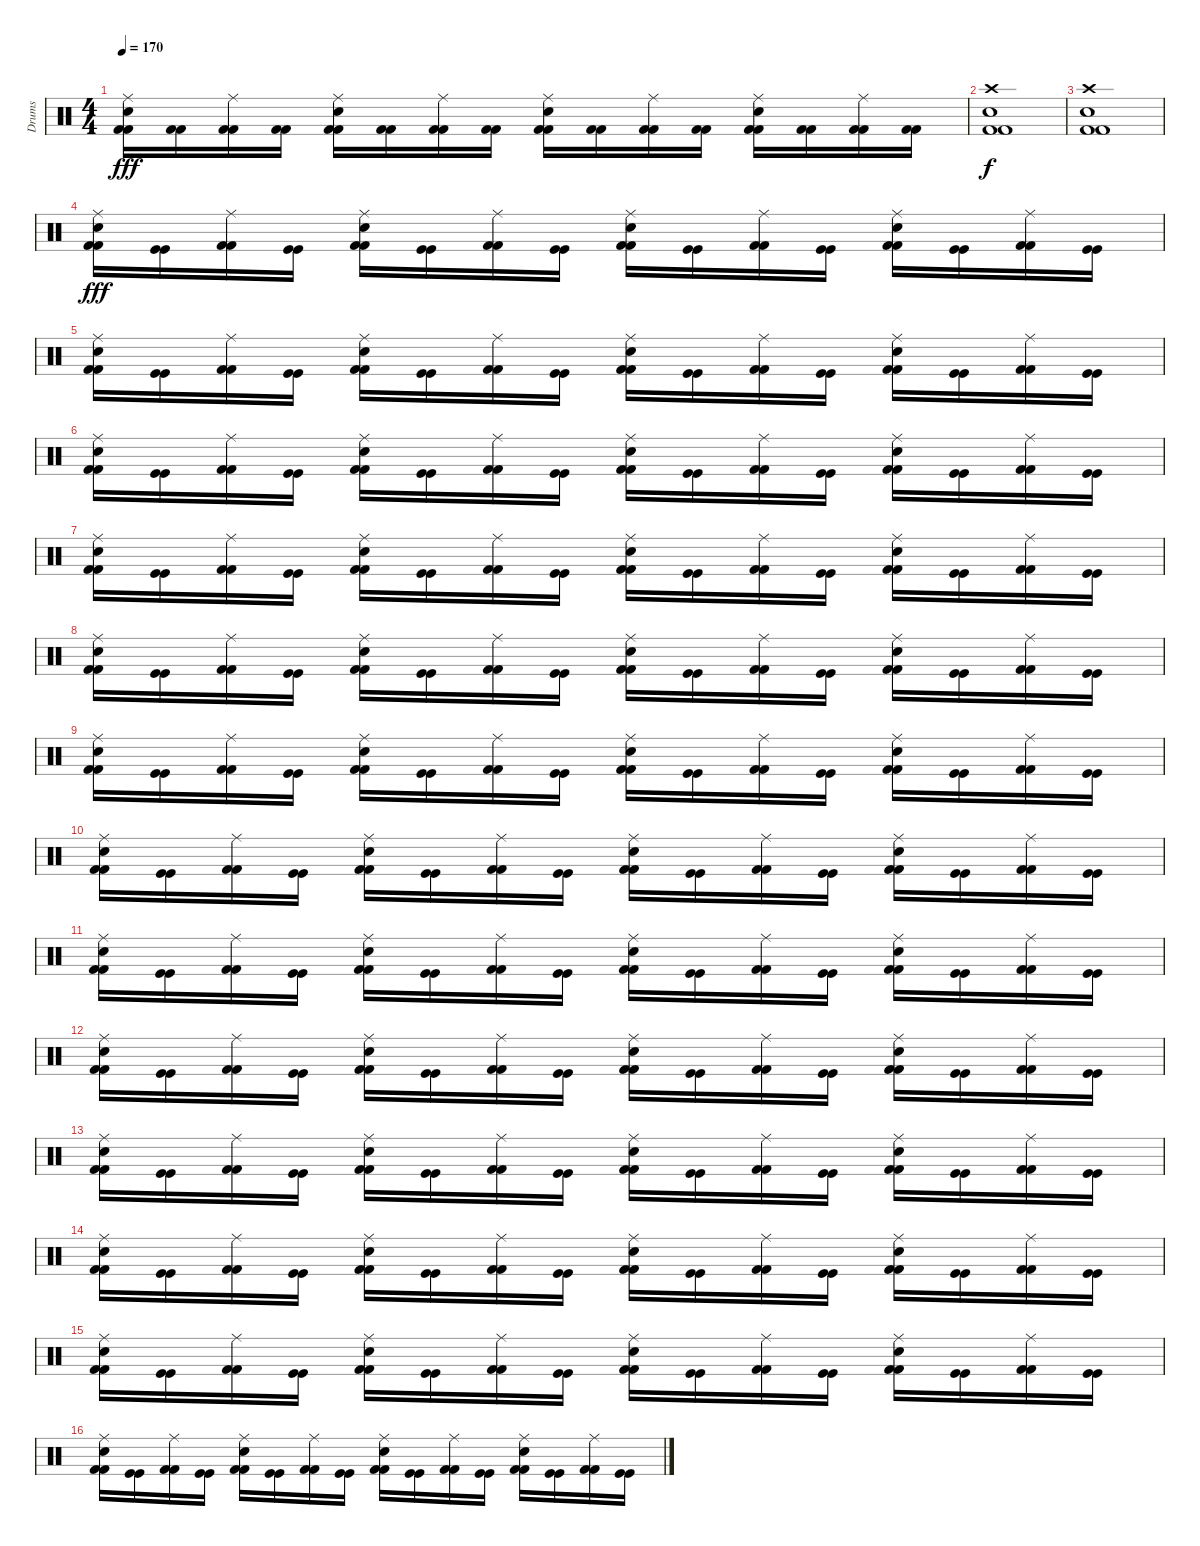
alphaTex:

\track ("Drums" "Drums") {instrument percussion}
\staff {score}
\articulation defaults
\ts (4 4)
\tempo 170
\clef neutral
\ks c
("Kick (hit) 2" "Kick (hit) 2" "Electric Snare (hit)" "Ride (middle)").16{dy fff} ("Kick (hit) 2" "Kick (hit) 2").16 ("Kick (hit) 2" "Kick (hit) 2" "Ride (middle)").16 ("Kick (hit) 2" "Kick (hit) 2").16 ("Kick (hit) 2" "Kick (hit) 2" "Electric Snare (hit)" "Ride (middle)").16 ("Kick (hit) 2" "Kick (hit) 2").16 ("Kick (hit) 2" "Kick (hit) 2" "Ride (middle)").16 ("Kick (hit) 2" "Kick (hit) 2").16 ("Kick (hit) 2" "Kick (hit) 2" "Electric Snare (hit)" "Ride (middle)").16 ("Kick (hit) 2" "Kick (hit) 2").16 ("Kick (hit) 2" "Kick (hit) 2" "Ride (middle)").16 ("Kick (hit) 2" "Kick (hit) 2").16 ("Kick (hit) 2" "Kick (hit) 2" "Electric Snare (hit)" "Ride (middle)").16 ("Kick (hit) 2" "Kick (hit) 2").16 ("Kick (hit) 2" "Kick (hit) 2" "Ride (middle)").16 ("Kick (hit) 2" "Kick (hit) 2").16 |
("Crash high (hit)" "Snare (hit) 2" "Kick (hit) 2" "Kick (hit) 2").1{dy f} |
("Crash high (hit)" "Snare (hit) 2" "Kick (hit) 2" "Kick (hit) 2").1 |
("Kick (hit) 2" "Kick (hit) 2" "Electric Snare (hit)" "Ride (middle)").16{dy fff} ("Kick (hit)" "Kick (hit)").16 ("Kick (hit) 2" "Kick (hit) 2" "Ride (middle)").16 ("Kick (hit)" "Kick (hit)").16 ("Kick (hit) 2" "Kick (hit) 2" "Electric Snare (hit)" "Ride (middle)").16 ("Kick (hit)" "Kick (hit)").16 ("Kick (hit) 2" "Kick (hit) 2" "Ride (middle)").16 ("Kick (hit)" "Kick (hit)").16 ("Kick (hit) 2" "Kick (hit) 2" "Electric Snare (hit)" "Ride (middle)").16 ("Kick (hit)" "Kick (hit)").16 ("Kick (hit) 2" "Kick (hit) 2" "Ride (middle)").16 ("Kick (hit)" "Kick (hit)").16 ("Kick (hit) 2" "Kick (hit) 2" "Electric Snare (hit)" "Ride (middle)").16 ("Kick (hit)" "Kick (hit)").16 ("Kick (hit) 2" "Kick (hit) 2" "Ride (middle)").16 ("Kick (hit)" "Kick (hit)").16 |
("Kick (hit) 2" "Kick (hit) 2" "Electric Snare (hit)" "Ride (middle)").16 ("Kick (hit)" "Kick (hit)").16 ("Kick (hit) 2" "Kick (hit) 2" "Ride (middle)").16 ("Kick (hit)" "Kick (hit)").16 ("Kick (hit) 2" "Kick (hit) 2" "Electric Snare (hit)" "Ride (middle)").16 ("Kick (hit)" "Kick (hit)").16 ("Kick (hit) 2" "Kick (hit) 2" "Ride (middle)").16 ("Kick (hit)" "Kick (hit)").16 ("Kick (hit) 2" "Kick (hit) 2" "Electric Snare (hit)" "Ride (middle)").16 ("Kick (hit)" "Kick (hit)").16 ("Kick (hit) 2" "Kick (hit) 2" "Ride (middle)").16 ("Kick (hit)" "Kick (hit)").16 ("Kick (hit) 2" "Kick (hit) 2" "Electric Snare (hit)" "Ride (middle)").16 ("Kick (hit)" "Kick (hit)").16 ("Kick (hit) 2" "Kick (hit) 2" "Ride (middle)").16 ("Kick (hit)" "Kick (hit)").16 |
("Kick (hit) 2" "Kick (hit) 2" "Electric Snare (hit)" "Ride (middle)").16 ("Kick (hit)" "Kick (hit)").16 ("Kick (hit) 2" "Kick (hit) 2" "Ride (middle)").16 ("Kick (hit)" "Kick (hit)").16 ("Kick (hit) 2" "Kick (hit) 2" "Electric Snare (hit)" "Ride (middle)").16 ("Kick (hit)" "Kick (hit)").16 ("Kick (hit) 2" "Kick (hit) 2" "Ride (middle)").16 ("Kick (hit)" "Kick (hit)").16 ("Kick (hit) 2" "Kick (hit) 2" "Electric Snare (hit)" "Ride (middle)").16 ("Kick (hit)" "Kick (hit)").16 ("Kick (hit) 2" "Kick (hit) 2" "Ride (middle)").16 ("Kick (hit)" "Kick (hit)").16 ("Kick (hit) 2" "Kick (hit) 2" "Electric Snare (hit)" "Ride (middle)").16 ("Kick (hit)" "Kick (hit)").16 ("Kick (hit) 2" "Kick (hit) 2" "Ride (middle)").16 ("Kick (hit)" "Kick (hit)").16 |
("Kick (hit) 2" "Kick (hit) 2" "Electric Snare (hit)" "Ride (middle)").16 ("Kick (hit)" "Kick (hit)").16 ("Kick (hit) 2" "Kick (hit) 2" "Ride (middle)").16 ("Kick (hit)" "Kick (hit)").16 ("Kick (hit) 2" "Kick (hit) 2" "Electric Snare (hit)" "Ride (middle)").16 ("Kick (hit)" "Kick (hit)").16 ("Kick (hit) 2" "Kick (hit) 2" "Ride (middle)").16 ("Kick (hit)" "Kick (hit)").16 ("Kick (hit) 2" "Kick (hit) 2" "Electric Snare (hit)" "Ride (middle)").16 ("Kick (hit)" "Kick (hit)").16 ("Kick (hit) 2" "Kick (hit) 2" "Ride (middle)").16 ("Kick (hit)" "Kick (hit)").16 ("Kick (hit) 2" "Kick (hit) 2" "Electric Snare (hit)" "Ride (middle)").16 ("Kick (hit)" "Kick (hit)").16 ("Kick (hit) 2" "Kick (hit) 2" "Ride (middle)").16 ("Kick (hit)" "Kick (hit)").16 |
("Kick (hit) 2" "Kick (hit) 2" "Electric Snare (hit)" "Ride (middle)").16 ("Kick (hit)" "Kick (hit)").16 ("Kick (hit) 2" "Kick (hit) 2" "Ride (middle)").16 ("Kick (hit)" "Kick (hit)").16 ("Kick (hit) 2" "Kick (hit) 2" "Electric Snare (hit)" "Ride (middle)").16 ("Kick (hit)" "Kick (hit)").16 ("Kick (hit) 2" "Kick (hit) 2" "Ride (middle)").16 ("Kick (hit)" "Kick (hit)").16 ("Kick (hit) 2" "Kick (hit) 2" "Electric Snare (hit)" "Ride (middle)").16 ("Kick (hit)" "Kick (hit)").16 ("Kick (hit) 2" "Kick (hit) 2" "Ride (middle)").16 ("Kick (hit)" "Kick (hit)").16 ("Kick (hit) 2" "Kick (hit) 2" "Electric Snare (hit)" "Ride (middle)").16 ("Kick (hit)" "Kick (hit)").16 ("Kick (hit) 2" "Kick (hit) 2" "Ride (middle)").16 ("Kick (hit)" "Kick (hit)").16 |
("Kick (hit) 2" "Kick (hit) 2" "Electric Snare (hit)" "Ride (middle)").16 ("Kick (hit)" "Kick (hit)").16 ("Kick (hit) 2" "Kick (hit) 2" "Ride (middle)").16 ("Kick (hit)" "Kick (hit)").16 ("Kick (hit) 2" "Kick (hit) 2" "Electric Snare (hit)" "Ride (middle)").16 ("Kick (hit)" "Kick (hit)").16 ("Kick (hit) 2" "Kick (hit) 2" "Ride (middle)").16 ("Kick (hit)" "Kick (hit)").16 ("Kick (hit) 2" "Kick (hit) 2" "Electric Snare (hit)" "Ride (middle)").16 ("Kick (hit)" "Kick (hit)").16 ("Kick (hit) 2" "Kick (hit) 2" "Ride (middle)").16 ("Kick (hit)" "Kick (hit)").16 ("Kick (hit) 2" "Kick (hit) 2" "Electric Snare (hit)" "Ride (middle)").16 ("Kick (hit)" "Kick (hit)").16 ("Kick (hit) 2" "Kick (hit) 2" "Ride (middle)").16 ("Kick (hit)" "Kick (hit)").16 |
("Kick (hit) 2" "Kick (hit) 2" "Electric Snare (hit)" "Ride (middle)").16 ("Kick (hit)" "Kick (hit)").16 ("Kick (hit) 2" "Kick (hit) 2" "Ride (middle)").16 ("Kick (hit)" "Kick (hit)").16 ("Kick (hit) 2" "Kick (hit) 2" "Electric Snare (hit)" "Ride (middle)").16 ("Kick (hit)" "Kick (hit)").16 ("Kick (hit) 2" "Kick (hit) 2" "Ride (middle)").16 ("Kick (hit)" "Kick (hit)").16 ("Kick (hit) 2" "Kick (hit) 2" "Electric Snare (hit)" "Ride (middle)").16 ("Kick (hit)" "Kick (hit)").16 ("Kick (hit) 2" "Kick (hit) 2" "Ride (middle)").16 ("Kick (hit)" "Kick (hit)").16 ("Kick (hit) 2" "Kick (hit) 2" "Electric Snare (hit)" "Ride (middle)").16 ("Kick (hit)" "Kick (hit)").16 ("Kick (hit) 2" "Kick (hit) 2" "Ride (middle)").16 ("Kick (hit)" "Kick (hit)").16 |
("Kick (hit) 2" "Kick (hit) 2" "Electric Snare (hit)" "Ride (middle)").16 ("Kick (hit)" "Kick (hit)").16 ("Kick (hit) 2" "Kick (hit) 2" "Ride (middle)").16 ("Kick (hit)" "Kick (hit)").16 ("Kick (hit) 2" "Kick (hit) 2" "Electric Snare (hit)" "Ride (middle)").16 ("Kick (hit)" "Kick (hit)").16 ("Kick (hit) 2" "Kick (hit) 2" "Ride (middle)").16 ("Kick (hit)" "Kick (hit)").16 ("Kick (hit) 2" "Kick (hit) 2" "Electric Snare (hit)" "Ride (middle)").16 ("Kick (hit)" "Kick (hit)").16 ("Kick (hit) 2" "Kick (hit) 2" "Ride (middle)").16 ("Kick (hit)" "Kick (hit)").16 ("Kick (hit) 2" "Kick (hit) 2" "Electric Snare (hit)" "Ride (middle)").16 ("Kick (hit)" "Kick (hit)").16 ("Kick (hit) 2" "Kick (hit) 2" "Ride (middle)").16 ("Kick (hit)" "Kick (hit)").16 |
("Kick (hit) 2" "Kick (hit) 2" "Electric Snare (hit)" "Ride (middle)").16 ("Kick (hit)" "Kick (hit)").16 ("Kick (hit) 2" "Kick (hit) 2" "Ride (middle)").16 ("Kick (hit)" "Kick (hit)").16 ("Kick (hit) 2" "Kick (hit) 2" "Electric Snare (hit)" "Ride (middle)").16 ("Kick (hit)" "Kick (hit)").16 ("Kick (hit) 2" "Kick (hit) 2" "Ride (middle)").16 ("Kick (hit)" "Kick (hit)").16 ("Kick (hit) 2" "Kick (hit) 2" "Electric Snare (hit)" "Ride (middle)").16 ("Kick (hit)" "Kick (hit)").16 ("Kick (hit) 2" "Kick (hit) 2" "Ride (middle)").16 ("Kick (hit)" "Kick (hit)").16 ("Kick (hit) 2" "Kick (hit) 2" "Electric Snare (hit)" "Ride (middle)").16 ("Kick (hit)" "Kick (hit)").16 ("Kick (hit) 2" "Kick (hit) 2" "Ride (middle)").16 ("Kick (hit)" "Kick (hit)").16 |
("Kick (hit) 2" "Kick (hit) 2" "Electric Snare (hit)" "Ride (middle)").16 ("Kick (hit)" "Kick (hit)").16 ("Kick (hit) 2" "Kick (hit) 2" "Ride (middle)").16 ("Kick (hit)" "Kick (hit)").16 ("Kick (hit) 2" "Kick (hit) 2" "Electric Snare (hit)" "Ride (middle)").16 ("Kick (hit)" "Kick (hit)").16 ("Kick (hit) 2" "Kick (hit) 2" "Ride (middle)").16 ("Kick (hit)" "Kick (hit)").16 ("Kick (hit) 2" "Kick (hit) 2" "Electric Snare (hit)" "Ride (middle)").16 ("Kick (hit)" "Kick (hit)").16 ("Kick (hit) 2" "Kick (hit) 2" "Ride (middle)").16 ("Kick (hit)" "Kick (hit)").16 ("Kick (hit) 2" "Kick (hit) 2" "Electric Snare (hit)" "Ride (middle)").16 ("Kick (hit)" "Kick (hit)").16 ("Kick (hit) 2" "Kick (hit) 2" "Ride (middle)").16 ("Kick (hit)" "Kick (hit)").16 |
("Kick (hit) 2" "Kick (hit) 2" "Electric Snare (hit)" "Ride (middle)").16 ("Kick (hit)" "Kick (hit)").16 ("Kick (hit) 2" "Kick (hit) 2" "Ride (middle)").16 ("Kick (hit)" "Kick (hit)").16 ("Kick (hit) 2" "Kick (hit) 2" "Electric Snare (hit)" "Ride (middle)").16 ("Kick (hit)" "Kick (hit)").16 ("Kick (hit) 2" "Kick (hit) 2" "Ride (middle)").16 ("Kick (hit)" "Kick (hit)").16 ("Kick (hit) 2" "Kick (hit) 2" "Electric Snare (hit)" "Ride (middle)").16 ("Kick (hit)" "Kick (hit)").16 ("Kick (hit) 2" "Kick (hit) 2" "Ride (middle)").16 ("Kick (hit)" "Kick (hit)").16 ("Kick (hit) 2" "Kick (hit) 2" "Electric Snare (hit)" "Ride (middle)").16 ("Kick (hit)" "Kick (hit)").16 ("Kick (hit) 2" "Kick (hit) 2" "Ride (middle)").16 ("Kick (hit)" "Kick (hit)").16 |
("Kick (hit) 2" "Kick (hit) 2" "Electric Snare (hit)" "Ride (middle)").16 ("Kick (hit)" "Kick (hit)").16 ("Kick (hit) 2" "Kick (hit) 2" "Ride (middle)").16 ("Kick (hit)" "Kick (hit)").16 ("Kick (hit) 2" "Kick (hit) 2" "Electric Snare (hit)" "Ride (middle)").16 ("Kick (hit)" "Kick (hit)").16 ("Kick (hit) 2" "Kick (hit) 2" "Ride (middle)").16 ("Kick (hit)" "Kick (hit)").16 ("Kick (hit) 2" "Kick (hit) 2" "Electric Snare (hit)" "Ride (middle)").16 ("Kick (hit)" "Kick (hit)").16 ("Kick (hit) 2" "Kick (hit) 2" "Ride (middle)").16 ("Kick (hit)" "Kick (hit)").16 ("Kick (hit) 2" "Kick (hit) 2" "Electric Snare (hit)" "Ride (middle)").16 ("Kick (hit)" "Kick (hit)").16 ("Kick (hit) 2" "Kick (hit) 2" "Ride (middle)").16 ("Kick (hit)" "Kick (hit)").16 |
("Kick (hit) 2" "Kick (hit) 2" "Electric Snare (hit)" "Ride (middle)").16 ("Kick (hit)" "Kick (hit)").16 ("Kick (hit) 2" "Kick (hit) 2" "Ride (middle)").16 ("Kick (hit)" "Kick (hit)").16 ("Kick (hit) 2" "Kick (hit) 2" "Electric Snare (hit)" "Ride (middle)").16 ("Kick (hit)" "Kick (hit)").16 ("Kick (hit) 2" "Kick (hit) 2" "Ride (middle)").16 ("Kick (hit)" "Kick (hit)").16 ("Kick (hit) 2" "Kick (hit) 2" "Electric Snare (hit)" "Ride (middle)").16 ("Kick (hit)" "Kick (hit)").16 ("Kick (hit) 2" "Kick (hit) 2" "Ride (middle)").16 ("Kick (hit)" "Kick (hit)").16 ("Kick (hit) 2" "Kick (hit) 2" "Electric Snare (hit)" "Ride (middle)").16 ("Kick (hit)" "Kick (hit)").16 ("Kick (hit) 2" "Kick (hit) 2" "Ride (middle)").16 ("Kick (hit)" "Kick (hit)").16
